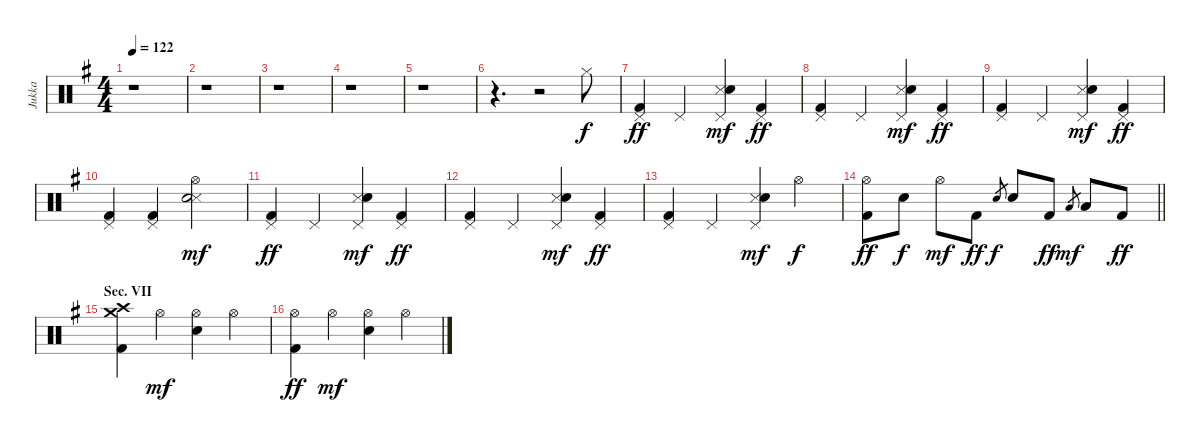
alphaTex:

\track ("Jukka" "Jukka") {instrument percussion}
\staff {score}
\articulation defaults
\ts (4 4)
\tempo 122
\clef neutral
\ks g
r.1{dy ff} |
r.1 |
r.1 |
r.1 |
r.1 |
r.4{d} r.2 "Hi-Hat (closed)".8{dy f} |
("Pedal Hi-Hat (hit)" "Kick (hit) 2").4{dy ff} "Pedal Hi-Hat (hit)".4 ("Pedal Hi-Hat (hit)" "Snare (side stick) 3" "Electric Snare (hit)").4{dy mf} ("Pedal Hi-Hat (hit)" "Kick (hit) 2").4{dy ff} |
("Pedal Hi-Hat (hit)" "Kick (hit) 2").4 "Pedal Hi-Hat (hit)".4 ("Pedal Hi-Hat (hit)" "Snare (side stick) 3" "Electric Snare (hit)").4{dy mf} ("Pedal Hi-Hat (hit)" "Kick (hit) 2").4{dy ff} |
("Pedal Hi-Hat (hit)" "Kick (hit) 2").4 "Pedal Hi-Hat (hit)".4 ("Pedal Hi-Hat (hit)" "Snare (side stick) 3" "Electric Snare (hit)").4{dy mf} ("Pedal Hi-Hat (hit)" "Kick (hit) 2").4{dy ff} |
("Pedal Hi-Hat (hit)" "Kick (hit) 2").4 ("Pedal Hi-Hat (hit)" "Kick (hit) 2").4 ("Hi-Hat (open)" "Snare (side stick) 3" "Electric Snare (hit)").2{dy mf} |
("Pedal Hi-Hat (hit)" "Kick (hit) 2").4{dy ff} "Pedal Hi-Hat (hit)".4 ("Pedal Hi-Hat (hit)" "Snare (side stick) 3" "Electric Snare (hit)").4{dy mf} ("Pedal Hi-Hat (hit)" "Kick (hit) 2").4{dy ff} |
("Pedal Hi-Hat (hit)" "Kick (hit) 2").4 "Pedal Hi-Hat (hit)".4 ("Pedal Hi-Hat (hit)" "Snare (side stick) 3" "Electric Snare (hit)").4{dy mf} ("Pedal Hi-Hat (hit)" "Kick (hit) 2").4{dy ff} |
("Pedal Hi-Hat (hit)" "Kick (hit) 2").4 "Pedal Hi-Hat (hit)".4 ("Pedal Hi-Hat (hit)" "Snare (side stick) 3" "Electric Snare (hit)").4{dy mf} "Hi-Hat (open)".4{dy f} |
\barLineRight lightlight
("Hi-Hat (open)" "Kick (hit) 2").8{dy ff} "Electric Snare (hit)".8{dy f} "Hi-Hat (open)".8{dy mf} "Kick (hit) 2".8{dy ff} "Electric Snare (hit)".8{gr dy f} "Electric Snare (hit)".8 "Kick (hit) 2".8{dy ff} "Low Floor Tom (hit)".8{gr dy mf} "Low Floor Tom (hit)".8 "Kick (hit) 2".8{dy ff} |
\section ("" "Sec. VII")
("Crash medium (hit)" "Crash high (hit)" "Kick (hit) 2").4 "Hi-Hat (open)".4{dy mf} ("Hi-Hat (open)" "Electric Snare (hit)").4 "Hi-Hat (open)".4 |
("Hi-Hat (open)" "Kick (hit) 2").4{dy ff} "Hi-Hat (open)".4{dy mf} ("Hi-Hat (open)" "Electric Snare (hit)").4 "Hi-Hat (open)".4
